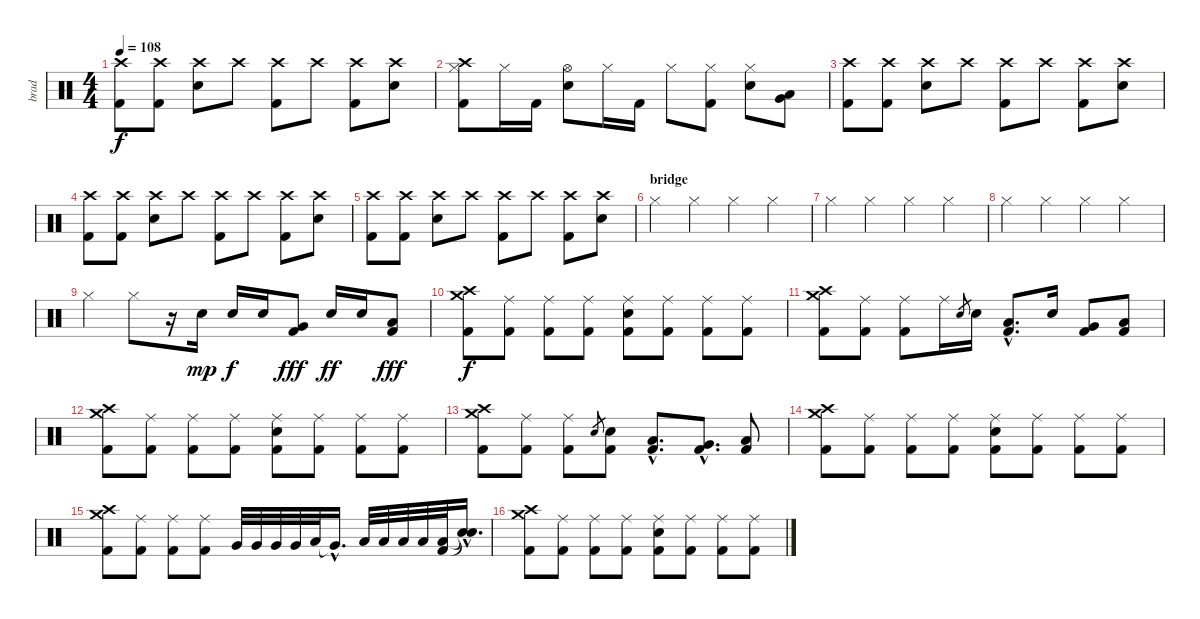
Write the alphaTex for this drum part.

\track ("brad" "brad") {instrument percussion}
\staff {score}
\articulation defaults
\ts (4 4)
\tempo 108
\clef neutral
\ks c
("Crash high (hit)" "Kick (hit) 2").8{dy f} ("Crash high (hit)" "Kick (hit) 2").8 ("Crash high (hit)" "Electric Snare (hit)").8 "Crash high (hit)".8 ("Crash high (hit)" "Kick (hit) 2").8 "Crash high (hit)".8 ("Crash high (hit)" "Kick (hit) 2").8 ("Crash high (hit)" "Electric Snare (hit)").8 |
("Crash high (hit)" "Hi-Hat (closed)" "Kick (hit) 2").8 "Hi-Hat (closed)".16 "Kick (hit) 2".16 ("Hi-Hat (open)" "Electric Snare (hit)").8 "Hi-Hat (closed)".16 "Kick (hit) 2".16 "Hi-Hat (closed)".8 ("Hi-Hat (closed)" "Kick (hit) 2").8 ("Hi-Hat (closed)" "Electric Snare (hit)").8 ("Very Low Tom (hit)" "Low Floor Tom (hit)").8 |
("Crash high (hit)" "Kick (hit) 2").8 ("Crash high (hit)" "Kick (hit) 2").8 ("Crash high (hit)" "Electric Snare (hit)").8 "Crash high (hit)".8 ("Crash high (hit)" "Kick (hit) 2").8 "Crash high (hit)".8 ("Crash high (hit)" "Kick (hit) 2").8 ("Crash high (hit)" "Electric Snare (hit)").8 |
("Crash high (hit)" "Kick (hit) 2").8 ("Crash high (hit)" "Kick (hit) 2").8 ("Crash high (hit)" "Electric Snare (hit)").8 "Crash high (hit)".8 ("Crash high (hit)" "Kick (hit) 2").8 "Crash high (hit)".8 ("Crash high (hit)" "Kick (hit) 2").8 ("Crash high (hit)" "Electric Snare (hit)").8 |
("Crash high (hit)" "Kick (hit) 2").8 ("Crash high (hit)" "Kick (hit) 2").8 ("Crash high (hit)" "Electric Snare (hit)").8 "Crash high (hit)".8 ("Crash high (hit)" "Kick (hit) 2").8 "Crash high (hit)".8 ("Crash high (hit)" "Kick (hit) 2").8 ("Crash high (hit)" "Electric Snare (hit)").8 |
\section ("" "bridge")
"Hi-Hat (closed)".4 "Hi-Hat (closed)".4 "Hi-Hat (closed)".4 "Hi-Hat (closed)".4 |
"Hi-Hat (closed)".4 "Hi-Hat (closed)".4 "Hi-Hat (closed)".4 "Hi-Hat (closed)".4 |
"Hi-Hat (closed)".4 "Hi-Hat (closed)".4 "Hi-Hat (closed)".4 "Hi-Hat (closed)".4 |
"Hi-Hat (closed)".4 "Hi-Hat (closed)".8 r.16 "Electric Snare (hit)".16{dy mp} "Electric Snare (hit)".16{dy f} "Electric Snare (hit)".16 ("Very Low Tom (hit)" "Kick (hit) 2").8{dy fff} "Electric Snare (hit)".16{dy ff} "Electric Snare (hit)".16 ("Low Floor Tom (hit)" "Kick (hit) 2").8{dy fff} |
("Crash medium (hit)" "Crash high (hit)" "Kick (hit) 2").8{dy f} ("Ride (middle)" "Kick (hit) 2").8 ("Ride (middle)" "Kick (hit) 2").8 ("Ride (middle)" "Kick (hit) 2").8 ("Ride (middle)" "Electric Snare (hit)" "Kick (hit) 2").8 ("Ride (middle)" "Kick (hit) 2").8 ("Ride (middle)" "Kick (hit) 2").8 ("Ride (middle)" "Kick (hit) 2").8 |
("Crash medium (hit)" "Crash high (hit)" "Kick (hit) 2").8 ("Ride (middle)" "Kick (hit) 2").8 ("Ride (middle)" "Kick (hit) 2").8 "Ride (middle)".16 "Electric Snare (hit)".8{gr} "Electric Snare (hit)".16 ("Low Tom (hit)"{hac} "Kick (hit) 2"{hac}).8{d} "Electric Snare (hit)".16 ("Very Low Tom (hit)" "Kick (hit) 2").8 ("Low Floor Tom (hit)" "Kick (hit) 2").8 |
("Crash high (hit)" "Crash medium (hit)" "Kick (hit) 2").8 ("Ride (middle)" "Kick (hit) 2").8 ("Ride (middle)" "Kick (hit) 2").8 ("Ride (middle)" "Kick (hit) 2").8 ("Ride (middle)" "Electric Snare (hit)" "Kick (hit) 2").8 ("Ride (middle)" "Kick (hit) 2").8 ("Ride (middle)" "Kick (hit) 2").8 ("Ride (middle)" "Kick (hit) 2").8 |
("Crash high (hit)" "Crash medium (hit)" "Kick (hit) 2").8 ("Ride (middle)" "Kick (hit) 2").8 ("Ride (middle)" "Kick (hit) 2").8 "Electric Snare (hit)".8{gr} ("Electric Snare (hit)" "Kick (hit) 2").8 ("Low Tom (hit)"{hac} "Kick (hit) 2"{hac}).8{d} ("Very Low Tom (hit)"{hac} "Kick (hit) 2"{hac}).8{d} ("Low Floor Tom (hit)" "Kick (hit) 2").8 |
("Crash high (hit)" "Crash medium (hit)" "Kick (hit) 2").8 ("Ride (middle)" "Kick (hit) 2").8 ("Ride (middle)" "Kick (hit) 2").8 ("Ride (middle)" "Kick (hit) 2").8 ("Ride (middle)" "Electric Snare (hit)" "Kick (hit) 2").8 ("Ride (middle)" "Kick (hit) 2").8 ("Ride (middle)" "Kick (hit) 2").8 ("Ride (middle)" "Kick (hit) 2").8 |
("Crash high (hit)" "Crash medium (hit)" "Kick (hit) 2").8 ("Ride (middle)" "Kick (hit) 2").8 ("Ride (middle)" "Kick (hit) 2").8 ("Ride (middle)" "Kick (hit) 2").8 "Very Low Tom (hit)".32 "Very Low Tom (hit)".32 "Very Low Tom (hit)".32 "Very Low Tom (hit)".32 "Low Floor Tom (hit)".32 "Very Low Tom (hit)"{hac t}.16{d} "Low Floor Tom (hit)".32 "Low Floor Tom (hit)".32 "Low Floor Tom (hit)".32 "Low Floor Tom (hit)".32 ("Low Floor Tom (hit)" "Kick (hit) 2").32 ("Snare (hit)"{hac t} "Snare (hit)"{hac t}).16{d} |
("Crash high (hit)" "Crash medium (hit)" "Kick (hit) 2").8 ("Ride (middle)" "Kick (hit) 2").8 ("Ride (middle)" "Kick (hit) 2").8 ("Ride (middle)" "Kick (hit) 2").8 ("Ride (middle)" "Electric Snare (hit)" "Kick (hit) 2").8 ("Ride (middle)" "Kick (hit) 2").8 ("Ride (middle)" "Kick (hit) 2").8 ("Ride (middle)" "Kick (hit) 2").8
